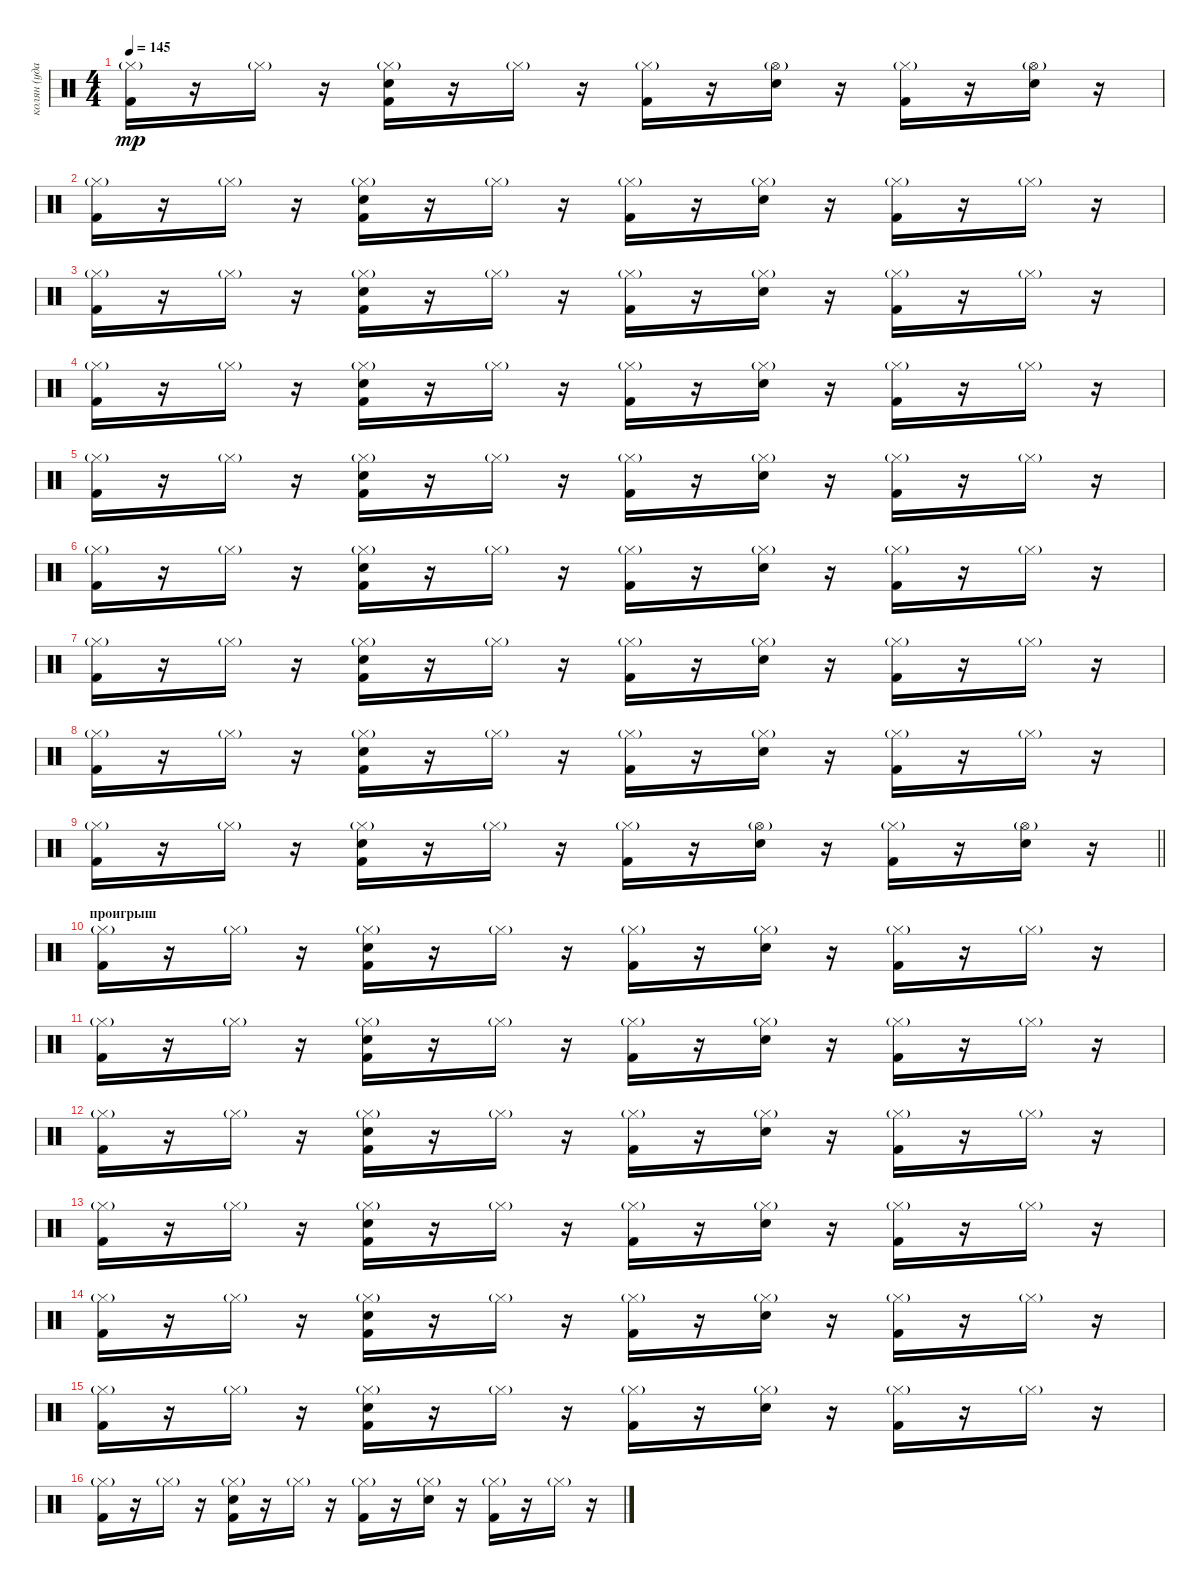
\track ("колян (ударные)" "колян (уда") {instrument percussion}
\staff {score}
\articulation defaults
\ts (4 4)
\tempo 145
\clef neutral
\ks c
("Kick (hit) 2" "Hi-Hat (closed)"{g}).16{dy mp} r.16 "Hi-Hat (closed)"{g}.16 r.16 ("Snare (hit) 2" "Kick (hit) 2" "Hi-Hat (closed)"{g}).16 r.16 "Hi-Hat (closed)"{g}.16 r.16 ("Kick (hit) 2" "Hi-Hat (closed)"{g}).16 r.16 ("Snare (hit) 2" "Hi-Hat (open)"{g}).16 r.16 ("Kick (hit) 2" "Hi-Hat (closed)"{g}).16 r.16 ("Snare (hit) 2" "Hi-Hat (open)"{g}).16 r.16 |
("Kick (hit) 2" "Hi-Hat (closed)"{g}).16 r.16 "Hi-Hat (closed)"{g}.16 r.16 ("Snare (hit) 2" "Kick (hit) 2" "Hi-Hat (closed)"{g}).16 r.16 "Hi-Hat (closed)"{g}.16 r.16 ("Kick (hit) 2" "Hi-Hat (closed)"{g}).16 r.16 ("Snare (hit) 2" "Hi-Hat (closed)"{g}).16 r.16 ("Kick (hit) 2" "Hi-Hat (closed)"{g}).16 r.16 "Hi-Hat (closed)"{g}.16 r.16 |
("Kick (hit) 2" "Hi-Hat (closed)"{g}).16 r.16 "Hi-Hat (closed)"{g}.16 r.16 ("Snare (hit) 2" "Kick (hit) 2" "Hi-Hat (closed)"{g}).16 r.16 "Hi-Hat (closed)"{g}.16 r.16 ("Kick (hit) 2" "Hi-Hat (closed)"{g}).16 r.16 ("Snare (hit) 2" "Hi-Hat (closed)"{g}).16 r.16 ("Kick (hit) 2" "Hi-Hat (closed)"{g}).16 r.16 "Hi-Hat (closed)"{g}.16 r.16 |
("Kick (hit) 2" "Hi-Hat (closed)"{g}).16 r.16 "Hi-Hat (closed)"{g}.16 r.16 ("Snare (hit) 2" "Kick (hit) 2" "Hi-Hat (closed)"{g}).16 r.16 "Hi-Hat (closed)"{g}.16 r.16 ("Kick (hit) 2" "Hi-Hat (closed)"{g}).16 r.16 ("Snare (hit) 2" "Hi-Hat (closed)"{g}).16 r.16 ("Kick (hit) 2" "Hi-Hat (closed)"{g}).16 r.16 "Hi-Hat (closed)"{g}.16 r.16 |
("Kick (hit) 2" "Hi-Hat (closed)"{g}).16 r.16 "Hi-Hat (closed)"{g}.16 r.16 ("Snare (hit) 2" "Kick (hit) 2" "Hi-Hat (closed)"{g}).16 r.16 "Hi-Hat (closed)"{g}.16 r.16 ("Kick (hit) 2" "Hi-Hat (closed)"{g}).16 r.16 ("Snare (hit) 2" "Hi-Hat (closed)"{g}).16 r.16 ("Kick (hit) 2" "Hi-Hat (closed)"{g}).16 r.16 "Hi-Hat (closed)"{g}.16 r.16 |
("Kick (hit) 2" "Hi-Hat (closed)"{g}).16 r.16 "Hi-Hat (closed)"{g}.16 r.16 ("Snare (hit) 2" "Kick (hit) 2" "Hi-Hat (closed)"{g}).16 r.16 "Hi-Hat (closed)"{g}.16 r.16 ("Kick (hit) 2" "Hi-Hat (closed)"{g}).16 r.16 ("Snare (hit) 2" "Hi-Hat (closed)"{g}).16 r.16 ("Kick (hit) 2" "Hi-Hat (closed)"{g}).16 r.16 "Hi-Hat (closed)"{g}.16 r.16 |
("Kick (hit) 2" "Hi-Hat (closed)"{g}).16 r.16 "Hi-Hat (closed)"{g}.16 r.16 ("Snare (hit) 2" "Kick (hit) 2" "Hi-Hat (closed)"{g}).16 r.16 "Hi-Hat (closed)"{g}.16 r.16 ("Kick (hit) 2" "Hi-Hat (closed)"{g}).16 r.16 ("Snare (hit) 2" "Hi-Hat (closed)"{g}).16 r.16 ("Kick (hit) 2" "Hi-Hat (closed)"{g}).16 r.16 "Hi-Hat (closed)"{g}.16 r.16 |
("Kick (hit) 2" "Hi-Hat (closed)"{g}).16 r.16 "Hi-Hat (closed)"{g}.16 r.16 ("Snare (hit) 2" "Kick (hit) 2" "Hi-Hat (closed)"{g}).16 r.16 "Hi-Hat (closed)"{g}.16 r.16 ("Kick (hit) 2" "Hi-Hat (closed)"{g}).16 r.16 ("Snare (hit) 2" "Hi-Hat (closed)"{g}).16 r.16 ("Kick (hit) 2" "Hi-Hat (closed)"{g}).16 r.16 "Hi-Hat (closed)"{g}.16 r.16 |
\barLineRight lightlight
("Kick (hit) 2" "Hi-Hat (closed)"{g}).16 r.16 "Hi-Hat (closed)"{g}.16 r.16 ("Snare (hit) 2" "Kick (hit) 2" "Hi-Hat (closed)"{g}).16 r.16 "Hi-Hat (closed)"{g}.16 r.16 ("Kick (hit) 2" "Hi-Hat (closed)"{g}).16 r.16 ("Snare (hit) 2" "Hi-Hat (open)"{g}).16 r.16 ("Kick (hit) 2" "Hi-Hat (closed)"{g}).16 r.16 ("Snare (hit) 2" "Hi-Hat (open)"{g}).16 r.16 |
\section ("" "проигрыш")
("Kick (hit) 2" "Hi-Hat (closed)"{g}).16 r.16 "Hi-Hat (closed)"{g}.16 r.16 ("Snare (hit) 2" "Kick (hit) 2" "Hi-Hat (closed)"{g}).16 r.16 "Hi-Hat (closed)"{g}.16 r.16 ("Kick (hit) 2" "Hi-Hat (closed)"{g}).16 r.16 ("Snare (hit) 2" "Hi-Hat (closed)"{g}).16 r.16 ("Kick (hit) 2" "Hi-Hat (closed)"{g}).16 r.16 "Hi-Hat (closed)"{g}.16 r.16 |
("Kick (hit) 2" "Hi-Hat (closed)"{g}).16 r.16 "Hi-Hat (closed)"{g}.16 r.16 ("Snare (hit) 2" "Kick (hit) 2" "Hi-Hat (closed)"{g}).16 r.16 "Hi-Hat (closed)"{g}.16 r.16 ("Kick (hit) 2" "Hi-Hat (closed)"{g}).16 r.16 ("Snare (hit) 2" "Hi-Hat (closed)"{g}).16 r.16 ("Kick (hit) 2" "Hi-Hat (closed)"{g}).16 r.16 "Hi-Hat (closed)"{g}.16 r.16 |
("Kick (hit) 2" "Hi-Hat (closed)"{g}).16 r.16 "Hi-Hat (closed)"{g}.16 r.16 ("Snare (hit) 2" "Kick (hit) 2" "Hi-Hat (closed)"{g}).16 r.16 "Hi-Hat (closed)"{g}.16 r.16 ("Kick (hit) 2" "Hi-Hat (closed)"{g}).16 r.16 ("Snare (hit) 2" "Hi-Hat (closed)"{g}).16 r.16 ("Kick (hit) 2" "Hi-Hat (closed)"{g}).16 r.16 "Hi-Hat (closed)"{g}.16 r.16 |
("Kick (hit) 2" "Hi-Hat (closed)"{g}).16 r.16 "Hi-Hat (closed)"{g}.16 r.16 ("Snare (hit) 2" "Kick (hit) 2" "Hi-Hat (closed)"{g}).16 r.16 "Hi-Hat (closed)"{g}.16 r.16 ("Kick (hit) 2" "Hi-Hat (closed)"{g}).16 r.16 ("Snare (hit) 2" "Hi-Hat (closed)"{g}).16 r.16 ("Kick (hit) 2" "Hi-Hat (closed)"{g}).16 r.16 "Hi-Hat (closed)"{g}.16 r.16 |
("Kick (hit) 2" "Hi-Hat (closed)"{g}).16 r.16 "Hi-Hat (closed)"{g}.16 r.16 ("Snare (hit) 2" "Kick (hit) 2" "Hi-Hat (closed)"{g}).16 r.16 "Hi-Hat (closed)"{g}.16 r.16 ("Kick (hit) 2" "Hi-Hat (closed)"{g}).16 r.16 ("Snare (hit) 2" "Hi-Hat (closed)"{g}).16 r.16 ("Kick (hit) 2" "Hi-Hat (closed)"{g}).16 r.16 "Hi-Hat (closed)"{g}.16 r.16 |
("Kick (hit) 2" "Hi-Hat (closed)"{g}).16 r.16 "Hi-Hat (closed)"{g}.16 r.16 ("Snare (hit) 2" "Kick (hit) 2" "Hi-Hat (closed)"{g}).16 r.16 "Hi-Hat (closed)"{g}.16 r.16 ("Kick (hit) 2" "Hi-Hat (closed)"{g}).16 r.16 ("Snare (hit) 2" "Hi-Hat (closed)"{g}).16 r.16 ("Kick (hit) 2" "Hi-Hat (closed)"{g}).16 r.16 "Hi-Hat (closed)"{g}.16 r.16 |
("Kick (hit) 2" "Hi-Hat (closed)"{g}).16 r.16 "Hi-Hat (closed)"{g}.16 r.16 ("Snare (hit) 2" "Kick (hit) 2" "Hi-Hat (closed)"{g}).16 r.16 "Hi-Hat (closed)"{g}.16 r.16 ("Kick (hit) 2" "Hi-Hat (closed)"{g}).16 r.16 ("Snare (hit) 2" "Hi-Hat (closed)"{g}).16 r.16 ("Kick (hit) 2" "Hi-Hat (closed)"{g}).16 r.16 "Hi-Hat (closed)"{g}.16 r.16
